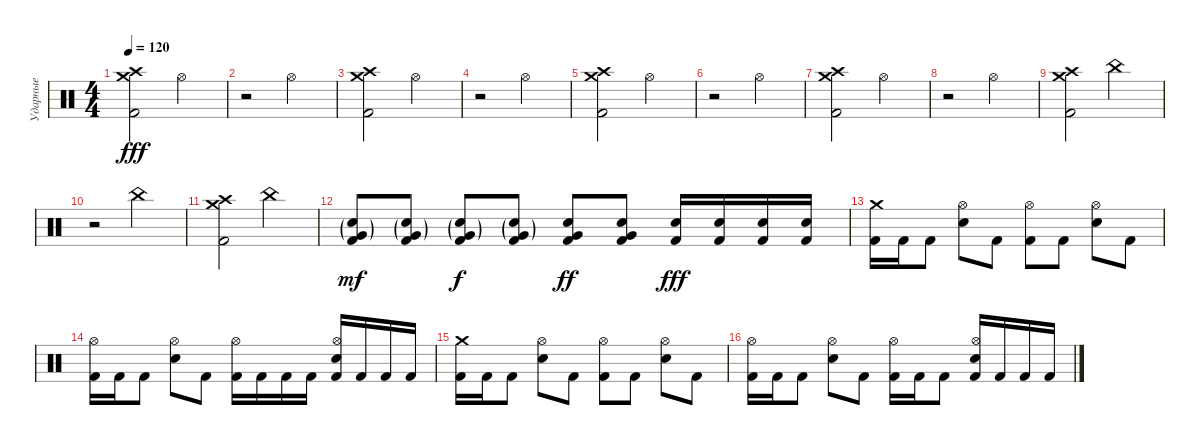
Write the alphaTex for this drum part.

\track ("Ударные" "Ударные") {instrument percussion}
\staff {score}
\articulation defaults
\ts (4 4)
\tempo 120
\clef neutral
\ks c
("Crash medium (hit)" "Crash high (hit)" "Kick (hit) 2").2{dy fff} "Hi-Hat (open)".2 |
r.2 "Hi-Hat (open)".2 |
("Crash medium (hit)" "Crash high (hit)" "Kick (hit) 2").2 "Hi-Hat (open)".2 |
r.2 "Hi-Hat (open)".2 |
("Crash medium (hit)" "Crash high (hit)" "Kick (hit) 2").2 "Hi-Hat (open)".2 |
r.2 "Hi-Hat (open)".2 |
("Crash medium (hit)" "Crash high (hit)" "Kick (hit) 2").2 "Hi-Hat (open)".2 |
r.2 "Hi-Hat (open)".2 |
("Crash medium (hit)" "Crash high (hit)" "Kick (hit) 2").2 "China (hit)".2 |
r.2 "China (hit)".2 |
("Crash medium (hit)" "Crash high (hit)" "Kick (hit) 2").2 "China (hit)".2 |
("Very Low Tom (hit)"{g} "Electric Snare (hit)"{g} "Kick (hit) 2").8{dy mf} ("Very Low Tom (hit)"{g} "Electric Snare (hit)"{g} "Kick (hit) 2").8 ("Very Low Tom (hit)"{g} "Electric Snare (hit)"{g} "Kick (hit) 2").8{dy f} ("Very Low Tom (hit)"{g} "Electric Snare (hit)"{g} "Kick (hit) 2").8 ("Very Low Tom (hit)" "Electric Snare (hit)" "Kick (hit) 2").8{dy ff} ("Very Low Tom (hit)" "Electric Snare (hit)" "Kick (hit) 2").8 ("Electric Snare (hit)" "Kick (hit) 2").16{dy fff} ("Electric Snare (hit)" "Kick (hit) 2").16 ("Electric Snare (hit)" "Kick (hit) 2").16 ("Electric Snare (hit)" "Kick (hit) 2").16 |
("Crash medium (hit)" "Kick (hit) 2").16 "Kick (hit) 2".16 "Kick (hit) 2".8 ("Hi-Hat (open)" "Electric Snare (hit)").8 "Kick (hit) 2".8 ("Hi-Hat (open)" "Kick (hit) 2").8 "Kick (hit) 2".8 ("Hi-Hat (open)" "Electric Snare (hit)").8 "Kick (hit) 2".8 |
("Hi-Hat (open)" "Kick (hit) 2").16 "Kick (hit) 2".16 "Kick (hit) 2".8 ("Hi-Hat (open)" "Electric Snare (hit)").8 "Kick (hit) 2".8 ("Hi-Hat (open)" "Kick (hit) 2").16 "Kick (hit) 2".16 "Kick (hit) 2".16 "Kick (hit) 2".16 ("Hi-Hat (open)" "Electric Snare (hit)" "Kick (hit) 2").16 "Kick (hit) 2".16 "Kick (hit) 2".16 "Kick (hit) 2".16 |
("Crash medium (hit)" "Kick (hit) 2").16 "Kick (hit) 2".16 "Kick (hit) 2".8 ("Hi-Hat (open)" "Electric Snare (hit)").8 "Kick (hit) 2".8 ("Hi-Hat (open)" "Kick (hit) 2").8 "Kick (hit) 2".8 ("Hi-Hat (open)" "Electric Snare (hit)").8 "Kick (hit) 2".8 |
("Hi-Hat (open)" "Kick (hit) 2").16 "Kick (hit) 2".16 "Kick (hit) 2".8 ("Hi-Hat (open)" "Electric Snare (hit)").8 "Kick (hit) 2".8 ("Hi-Hat (open)" "Kick (hit) 2").16 "Kick (hit) 2".16 "Kick (hit) 2".8 ("Hi-Hat (open)" "Electric Snare (hit)" "Kick (hit) 2").16 "Kick (hit) 2".16 "Kick (hit) 2".16 "Kick (hit) 2".16
